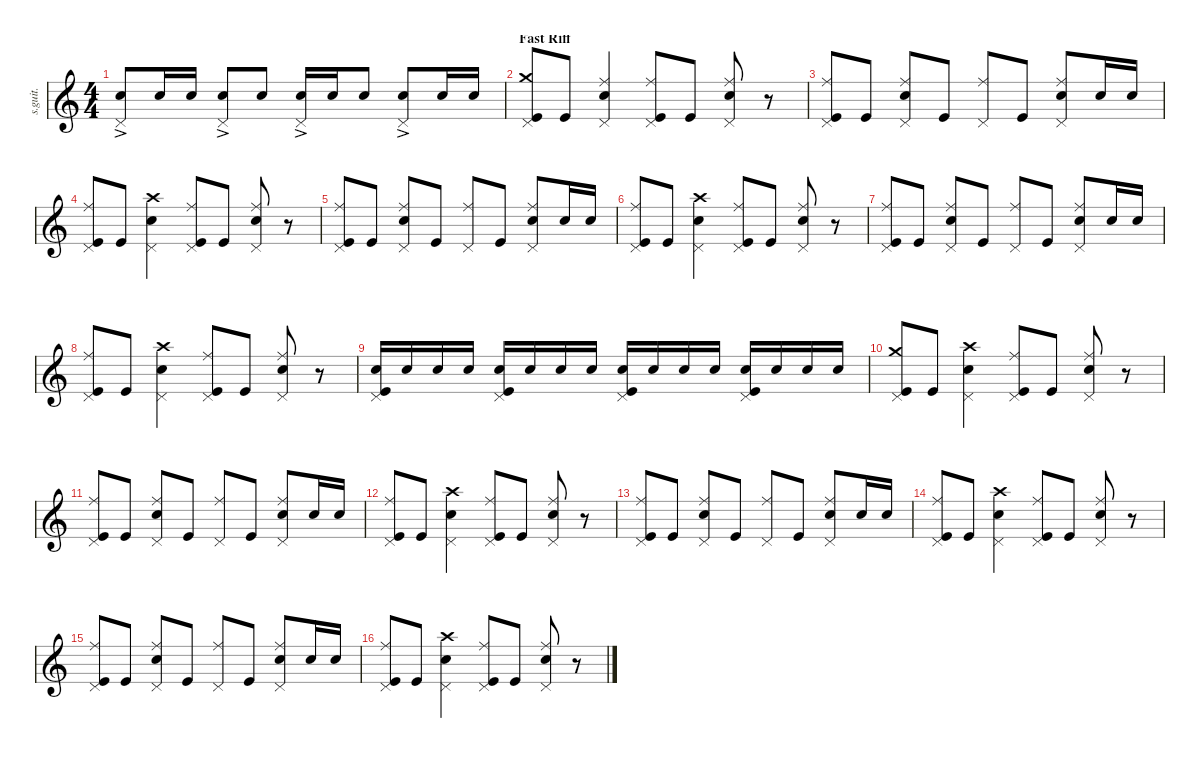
\defaultSystemsLayout 4
\hideDynamics
\bracketExtendMode nobrackets
\track ("Dave Grohl" "s.guit.") {instrument percussion}
\staff {score}
\articulation defaults
\ts (4 4)
\tempo (210 hide)
\clef g2
\ks c
("Pedal Hi-Hat (hit)"{ac} "Snare (hit) 2").8{lyrics (0 "") lyrics (1 "") lyrics (2 "") lyrics (3 "") lyrics (4 "") dy f} "Snare (hit) 2".16{lyrics (0 "") lyrics (1 "") lyrics (2 "") lyrics (3 "") lyrics (4 "")} "Snare (hit) 2".16{lyrics (0 "") lyrics (1 "") lyrics (2 "") lyrics (3 "") lyrics (4 "")} ("Pedal Hi-Hat (hit)"{ac} "Snare (hit) 2").8{lyrics (0 "") lyrics (1 "") lyrics (2 "") lyrics (3 "") lyrics (4 "")} "Snare (hit) 2".8{lyrics (0 "") lyrics (1 "") lyrics (2 "") lyrics (3 "") lyrics (4 "")} ("Pedal Hi-Hat (hit)"{ac} "Snare (hit) 2").16{lyrics (0 "") lyrics (1 "") lyrics (2 "") lyrics (3 "") lyrics (4 "")} "Snare (hit) 2".16{lyrics (0 "") lyrics (1 "") lyrics (2 "") lyrics (3 "") lyrics (4 "")} "Snare (hit) 2".8{lyrics (0 "") lyrics (1 "") lyrics (2 "") lyrics (3 "") lyrics (4 "")} ("Pedal Hi-Hat (hit)"{ac} "Snare (hit) 2").8{lyrics (0 "") lyrics (1 "") lyrics (2 "") lyrics (3 "") lyrics (4 "")} "Snare (hit) 2".16{lyrics (0 "") lyrics (1 "") lyrics (2 "") lyrics (3 "") lyrics (4 "")} "Snare (hit) 2".16{lyrics (0 "") lyrics (1 "") lyrics (2 "") lyrics (3 "") lyrics (4 "")} |
\section ("" "Fast Riff")
("Pedal Hi-Hat (hit)" "Crash medium (hit)" "Kick (hit)").8{lyrics (0 "") lyrics (1 "") lyrics (2 "") lyrics (3 "") lyrics (4 "")} "Kick (hit)".8{lyrics (0 "") lyrics (1 "") lyrics (2 "") lyrics (3 "") lyrics (4 "")} ("Pedal Hi-Hat (hit)" "Ride (middle)" "Snare (hit) 2").4{lyrics (0 "") lyrics (1 "") lyrics (2 "") lyrics (3 "") lyrics (4 "")} ("Pedal Hi-Hat (hit)" "Ride (middle)" "Kick (hit)").8{lyrics (0 "") lyrics (1 "") lyrics (2 "") lyrics (3 "") lyrics (4 "")} "Kick (hit)".8{lyrics (0 "") lyrics (1 "") lyrics (2 "") lyrics (3 "") lyrics (4 "")} ("Pedal Hi-Hat (hit)" "Ride (middle)" "Snare (hit) 2").8{lyrics (0 "") lyrics (1 "") lyrics (2 "") lyrics (3 "") lyrics (4 "")} r.8 |
("Pedal Hi-Hat (hit)" "Ride (middle)" "Kick (hit)").8{lyrics (0 "") lyrics (1 "") lyrics (2 "") lyrics (3 "") lyrics (4 "")} "Kick (hit)".8{lyrics (0 "") lyrics (1 "") lyrics (2 "") lyrics (3 "") lyrics (4 "")} ("Pedal Hi-Hat (hit)" "Ride (middle)" "Snare (hit) 2").8{lyrics (0 "") lyrics (1 "") lyrics (2 "") lyrics (3 "") lyrics (4 "")} "Kick (hit)".8{lyrics (0 "") lyrics (1 "") lyrics (2 "") lyrics (3 "") lyrics (4 "")} ("Pedal Hi-Hat (hit)" "Ride (middle)").8{lyrics (0 "") lyrics (1 "") lyrics (2 "") lyrics (3 "") lyrics (4 "")} "Kick (hit)".8{lyrics (0 "") lyrics (1 "") lyrics (2 "") lyrics (3 "") lyrics (4 "")} ("Pedal Hi-Hat (hit)" "Ride (middle)" "Snare (hit) 2").8{lyrics (0 "") lyrics (1 "") lyrics (2 "") lyrics (3 "") lyrics (4 "")} "Snare (hit) 2".16{lyrics (0 "") lyrics (1 "") lyrics (2 "") lyrics (3 "") lyrics (4 "") dy mf} "Snare (hit) 2".16{lyrics (0 "") lyrics (1 "") lyrics (2 "") lyrics (3 "") lyrics (4 "")} |
("Pedal Hi-Hat (hit)" "Ride (middle)" "Kick (hit)").8{lyrics (0 "") lyrics (1 "") lyrics (2 "") lyrics (3 "") lyrics (4 "") dy f} "Kick (hit)".8{lyrics (0 "") lyrics (1 "") lyrics (2 "") lyrics (3 "") lyrics (4 "")} ("Pedal Hi-Hat (hit)" "Crash high (hit)" "Snare (hit) 2").4{lyrics (0 "") lyrics (1 "") lyrics (2 "") lyrics (3 "") lyrics (4 "")} ("Pedal Hi-Hat (hit)" "Ride (middle)" "Kick (hit)").8{lyrics (0 "") lyrics (1 "") lyrics (2 "") lyrics (3 "") lyrics (4 "")} "Kick (hit)".8{lyrics (0 "") lyrics (1 "") lyrics (2 "") lyrics (3 "") lyrics (4 "")} ("Pedal Hi-Hat (hit)" "Ride (middle)" "Snare (hit) 2").8{lyrics (0 "") lyrics (1 "") lyrics (2 "") lyrics (3 "") lyrics (4 "")} r.8 |
("Pedal Hi-Hat (hit)" "Ride (middle)" "Kick (hit)").8{lyrics (0 "") lyrics (1 "") lyrics (2 "") lyrics (3 "") lyrics (4 "")} "Kick (hit)".8{lyrics (0 "") lyrics (1 "") lyrics (2 "") lyrics (3 "") lyrics (4 "")} ("Pedal Hi-Hat (hit)" "Ride (middle)" "Snare (hit) 2").8{lyrics (0 "") lyrics (1 "") lyrics (2 "") lyrics (3 "") lyrics (4 "")} "Kick (hit)".8{lyrics (0 "") lyrics (1 "") lyrics (2 "") lyrics (3 "") lyrics (4 "")} ("Pedal Hi-Hat (hit)" "Ride (middle)").8{lyrics (0 "") lyrics (1 "") lyrics (2 "") lyrics (3 "") lyrics (4 "")} "Kick (hit)".8{lyrics (0 "") lyrics (1 "") lyrics (2 "") lyrics (3 "") lyrics (4 "")} ("Pedal Hi-Hat (hit)" "Ride (middle)" "Snare (hit) 2").8{lyrics (0 "") lyrics (1 "") lyrics (2 "") lyrics (3 "") lyrics (4 "")} "Snare (hit) 2".16{lyrics (0 "") lyrics (1 "") lyrics (2 "") lyrics (3 "") lyrics (4 "") dy mf} "Snare (hit) 2".16{lyrics (0 "") lyrics (1 "") lyrics (2 "") lyrics (3 "") lyrics (4 "")} |
("Pedal Hi-Hat (hit)" "Ride (middle)" "Kick (hit)").8{lyrics (0 "") lyrics (1 "") lyrics (2 "") lyrics (3 "") lyrics (4 "") dy f} "Kick (hit)".8{lyrics (0 "") lyrics (1 "") lyrics (2 "") lyrics (3 "") lyrics (4 "")} ("Pedal Hi-Hat (hit)" "Crash high (hit)" "Snare (hit) 2").4{lyrics (0 "") lyrics (1 "") lyrics (2 "") lyrics (3 "") lyrics (4 "")} ("Pedal Hi-Hat (hit)" "Ride (middle)" "Kick (hit)").8{lyrics (0 "") lyrics (1 "") lyrics (2 "") lyrics (3 "") lyrics (4 "")} "Kick (hit)".8{lyrics (0 "") lyrics (1 "") lyrics (2 "") lyrics (3 "") lyrics (4 "")} ("Pedal Hi-Hat (hit)" "Ride (middle)" "Snare (hit) 2").8{lyrics (0 "") lyrics (1 "") lyrics (2 "") lyrics (3 "") lyrics (4 "")} r.8 |
("Pedal Hi-Hat (hit)" "Ride (middle)" "Kick (hit)").8{lyrics (0 "") lyrics (1 "") lyrics (2 "") lyrics (3 "") lyrics (4 "")} "Kick (hit)".8{lyrics (0 "") lyrics (1 "") lyrics (2 "") lyrics (3 "") lyrics (4 "")} ("Pedal Hi-Hat (hit)" "Ride (middle)" "Snare (hit) 2").8{lyrics (0 "") lyrics (1 "") lyrics (2 "") lyrics (3 "") lyrics (4 "")} "Kick (hit)".8{lyrics (0 "") lyrics (1 "") lyrics (2 "") lyrics (3 "") lyrics (4 "")} ("Pedal Hi-Hat (hit)" "Ride (middle)").8{lyrics (0 "") lyrics (1 "") lyrics (2 "") lyrics (3 "") lyrics (4 "")} "Kick (hit)".8{lyrics (0 "") lyrics (1 "") lyrics (2 "") lyrics (3 "") lyrics (4 "")} ("Pedal Hi-Hat (hit)" "Ride (middle)" "Snare (hit) 2").8{lyrics (0 "") lyrics (1 "") lyrics (2 "") lyrics (3 "") lyrics (4 "")} "Snare (hit) 2".16{lyrics (0 "") lyrics (1 "") lyrics (2 "") lyrics (3 "") lyrics (4 "") dy mf} "Snare (hit) 2".16{lyrics (0 "") lyrics (1 "") lyrics (2 "") lyrics (3 "") lyrics (4 "")} |
("Pedal Hi-Hat (hit)" "Ride (middle)" "Kick (hit)").8{lyrics (0 "") lyrics (1 "") lyrics (2 "") lyrics (3 "") lyrics (4 "") dy f} "Kick (hit)".8{lyrics (0 "") lyrics (1 "") lyrics (2 "") lyrics (3 "") lyrics (4 "")} ("Pedal Hi-Hat (hit)" "Crash high (hit)" "Snare (hit) 2").4{lyrics (0 "") lyrics (1 "") lyrics (2 "") lyrics (3 "") lyrics (4 "")} ("Pedal Hi-Hat (hit)" "Ride (middle)" "Kick (hit)").8{lyrics (0 "") lyrics (1 "") lyrics (2 "") lyrics (3 "") lyrics (4 "")} "Kick (hit)".8{lyrics (0 "") lyrics (1 "") lyrics (2 "") lyrics (3 "") lyrics (4 "")} ("Pedal Hi-Hat (hit)" "Ride (middle)" "Snare (hit) 2").8{lyrics (0 "") lyrics (1 "") lyrics (2 "") lyrics (3 "") lyrics (4 "")} r.8 |
("Pedal Hi-Hat (hit)" "Snare (hit) 2" "Kick (hit)").16{lyrics (0 "") lyrics (1 "") lyrics (2 "") lyrics (3 "") lyrics (4 "") dy mf} "Snare (hit) 2".16{lyrics (0 "") lyrics (1 "") lyrics (2 "") lyrics (3 "") lyrics (4 "") dy mp} "Snare (hit) 2".16{lyrics (0 "") lyrics (1 "") lyrics (2 "") lyrics (3 "") lyrics (4 "")} "Snare (hit) 2".16{lyrics (0 "") lyrics (1 "") lyrics (2 "") lyrics (3 "") lyrics (4 "") dy mf} ("Pedal Hi-Hat (hit)" "Snare (hit) 2" "Kick (hit)").16{lyrics (0 "") lyrics (1 "") lyrics (2 "") lyrics (3 "") lyrics (4 "")} "Snare (hit) 2".16{lyrics (0 "") lyrics (1 "") lyrics (2 "") lyrics (3 "") lyrics (4 "") dy mp} "Snare (hit) 2".16{lyrics (0 "") lyrics (1 "") lyrics (2 "") lyrics (3 "") lyrics (4 "")} "Snare (hit) 2".16{lyrics (0 "") lyrics (1 "") lyrics (2 "") lyrics (3 "") lyrics (4 "") dy mf} ("Pedal Hi-Hat (hit)" "Snare (hit) 2" "Kick (hit)").16{lyrics (0 "") lyrics (1 "") lyrics (2 "") lyrics (3 "") lyrics (4 "")} "Snare (hit) 2".16{lyrics (0 "") lyrics (1 "") lyrics (2 "") lyrics (3 "") lyrics (4 "") dy mp} "Snare (hit) 2".16{lyrics (0 "") lyrics (1 "") lyrics (2 "") lyrics (3 "") lyrics (4 "")} "Snare (hit) 2".16{lyrics (0 "") lyrics (1 "") lyrics (2 "") lyrics (3 "") lyrics (4 "") dy mf} ("Pedal Hi-Hat (hit)" "Snare (hit) 2" "Kick (hit)").16{lyrics (0 "") lyrics (1 "") lyrics (2 "") lyrics (3 "") lyrics (4 "")} "Snare (hit) 2".16{lyrics (0 "") lyrics (1 "") lyrics (2 "") lyrics (3 "") lyrics (4 "")} "Snare (hit) 2".16{lyrics (0 "") lyrics (1 "") lyrics (2 "") lyrics (3 "") lyrics (4 "")} "Snare (hit) 2".16{lyrics (0 "") lyrics (1 "") lyrics (2 "") lyrics (3 "") lyrics (4 "") dy f} |
("Pedal Hi-Hat (hit)" "Crash medium (hit)" "Kick (hit)").8{lyrics (0 "") lyrics (1 "") lyrics (2 "") lyrics (3 "") lyrics (4 "")} "Kick (hit)".8{lyrics (0 "") lyrics (1 "") lyrics (2 "") lyrics (3 "") lyrics (4 "")} ("Pedal Hi-Hat (hit)" "Crash high (hit)" "Snare (hit) 2").4{lyrics (0 "") lyrics (1 "") lyrics (2 "") lyrics (3 "") lyrics (4 "")} ("Pedal Hi-Hat (hit)" "Ride (middle)" "Kick (hit)").8{lyrics (0 "") lyrics (1 "") lyrics (2 "") lyrics (3 "") lyrics (4 "")} "Kick (hit)".8{lyrics (0 "") lyrics (1 "") lyrics (2 "") lyrics (3 "") lyrics (4 "")} ("Pedal Hi-Hat (hit)" "Ride (middle)" "Snare (hit) 2").8{lyrics (0 "") lyrics (1 "") lyrics (2 "") lyrics (3 "") lyrics (4 "")} r.8 |
("Pedal Hi-Hat (hit)" "Ride (middle)" "Kick (hit)").8{lyrics (0 "") lyrics (1 "") lyrics (2 "") lyrics (3 "") lyrics (4 "")} "Kick (hit)".8{lyrics (0 "") lyrics (1 "") lyrics (2 "") lyrics (3 "") lyrics (4 "")} ("Pedal Hi-Hat (hit)" "Ride (middle)" "Snare (hit) 2").8{lyrics (0 "") lyrics (1 "") lyrics (2 "") lyrics (3 "") lyrics (4 "")} "Kick (hit)".8{lyrics (0 "") lyrics (1 "") lyrics (2 "") lyrics (3 "") lyrics (4 "")} ("Pedal Hi-Hat (hit)" "Ride (middle)").8{lyrics (0 "") lyrics (1 "") lyrics (2 "") lyrics (3 "") lyrics (4 "")} "Kick (hit)".8{lyrics (0 "") lyrics (1 "") lyrics (2 "") lyrics (3 "") lyrics (4 "")} ("Pedal Hi-Hat (hit)" "Ride (middle)" "Snare (hit) 2").8{lyrics (0 "") lyrics (1 "") lyrics (2 "") lyrics (3 "") lyrics (4 "")} "Snare (hit) 2".16{lyrics (0 "") lyrics (1 "") lyrics (2 "") lyrics (3 "") lyrics (4 "") dy mf} "Snare (hit) 2".16{lyrics (0 "") lyrics (1 "") lyrics (2 "") lyrics (3 "") lyrics (4 "")} |
("Pedal Hi-Hat (hit)" "Ride (middle)" "Kick (hit)").8{lyrics (0 "") lyrics (1 "") lyrics (2 "") lyrics (3 "") lyrics (4 "") dy f} "Kick (hit)".8{lyrics (0 "") lyrics (1 "") lyrics (2 "") lyrics (3 "") lyrics (4 "")} ("Pedal Hi-Hat (hit)" "Crash high (hit)" "Snare (hit) 2").4{lyrics (0 "") lyrics (1 "") lyrics (2 "") lyrics (3 "") lyrics (4 "")} ("Pedal Hi-Hat (hit)" "Ride (middle)" "Kick (hit)").8{lyrics (0 "") lyrics (1 "") lyrics (2 "") lyrics (3 "") lyrics (4 "")} "Kick (hit)".8{lyrics (0 "") lyrics (1 "") lyrics (2 "") lyrics (3 "") lyrics (4 "")} ("Pedal Hi-Hat (hit)" "Ride (middle)" "Snare (hit) 2").8{lyrics (0 "") lyrics (1 "") lyrics (2 "") lyrics (3 "") lyrics (4 "")} r.8 |
("Pedal Hi-Hat (hit)" "Ride (middle)" "Kick (hit)").8{lyrics (0 "") lyrics (1 "") lyrics (2 "") lyrics (3 "") lyrics (4 "")} "Kick (hit)".8{lyrics (0 "") lyrics (1 "") lyrics (2 "") lyrics (3 "") lyrics (4 "")} ("Pedal Hi-Hat (hit)" "Ride (middle)" "Snare (hit) 2").8{lyrics (0 "") lyrics (1 "") lyrics (2 "") lyrics (3 "") lyrics (4 "")} "Kick (hit)".8{lyrics (0 "") lyrics (1 "") lyrics (2 "") lyrics (3 "") lyrics (4 "")} ("Pedal Hi-Hat (hit)" "Ride (middle)").8{lyrics (0 "") lyrics (1 "") lyrics (2 "") lyrics (3 "") lyrics (4 "")} "Kick (hit)".8{lyrics (0 "") lyrics (1 "") lyrics (2 "") lyrics (3 "") lyrics (4 "")} ("Pedal Hi-Hat (hit)" "Ride (middle)" "Snare (hit) 2").8{lyrics (0 "") lyrics (1 "") lyrics (2 "") lyrics (3 "") lyrics (4 "")} "Snare (hit) 2".16{lyrics (0 "") lyrics (1 "") lyrics (2 "") lyrics (3 "") lyrics (4 "") dy mf} "Snare (hit) 2".16{lyrics (0 "") lyrics (1 "") lyrics (2 "") lyrics (3 "") lyrics (4 "")} |
("Pedal Hi-Hat (hit)" "Ride (middle)" "Kick (hit)").8{lyrics (0 "") lyrics (1 "") lyrics (2 "") lyrics (3 "") lyrics (4 "") dy f} "Kick (hit)".8{lyrics (0 "") lyrics (1 "") lyrics (2 "") lyrics (3 "") lyrics (4 "")} ("Pedal Hi-Hat (hit)" "Crash high (hit)" "Snare (hit) 2").4{lyrics (0 "") lyrics (1 "") lyrics (2 "") lyrics (3 "") lyrics (4 "")} ("Pedal Hi-Hat (hit)" "Ride (middle)" "Kick (hit)").8{lyrics (0 "") lyrics (1 "") lyrics (2 "") lyrics (3 "") lyrics (4 "")} "Kick (hit)".8{lyrics (0 "") lyrics (1 "") lyrics (2 "") lyrics (3 "") lyrics (4 "")} ("Pedal Hi-Hat (hit)" "Ride (middle)" "Snare (hit) 2").8{lyrics (0 "") lyrics (1 "") lyrics (2 "") lyrics (3 "") lyrics (4 "")} r.8 |
("Pedal Hi-Hat (hit)" "Ride (middle)" "Kick (hit)").8{lyrics (0 "") lyrics (1 "") lyrics (2 "") lyrics (3 "") lyrics (4 "")} "Kick (hit)".8{lyrics (0 "") lyrics (1 "") lyrics (2 "") lyrics (3 "") lyrics (4 "")} ("Pedal Hi-Hat (hit)" "Ride (middle)" "Snare (hit) 2").8{lyrics (0 "") lyrics (1 "") lyrics (2 "") lyrics (3 "") lyrics (4 "")} "Kick (hit)".8{lyrics (0 "") lyrics (1 "") lyrics (2 "") lyrics (3 "") lyrics (4 "")} ("Pedal Hi-Hat (hit)" "Ride (middle)").8{lyrics (0 "") lyrics (1 "") lyrics (2 "") lyrics (3 "") lyrics (4 "")} "Kick (hit)".8{lyrics (0 "") lyrics (1 "") lyrics (2 "") lyrics (3 "") lyrics (4 "")} ("Pedal Hi-Hat (hit)" "Ride (middle)" "Snare (hit) 2").8{lyrics (0 "") lyrics (1 "") lyrics (2 "") lyrics (3 "") lyrics (4 "")} "Snare (hit) 2".16{lyrics (0 "") lyrics (1 "") lyrics (2 "") lyrics (3 "") lyrics (4 "") dy mf} "Snare (hit) 2".16{lyrics (0 "") lyrics (1 "") lyrics (2 "") lyrics (3 "") lyrics (4 "")} |
("Pedal Hi-Hat (hit)" "Ride (middle)" "Kick (hit)").8{lyrics (0 "") lyrics (1 "") lyrics (2 "") lyrics (3 "") lyrics (4 "") dy f} "Kick (hit)".8{lyrics (0 "") lyrics (1 "") lyrics (2 "") lyrics (3 "") lyrics (4 "")} ("Pedal Hi-Hat (hit)" "Crash high (hit)" "Snare (hit) 2").4{lyrics (0 "") lyrics (1 "") lyrics (2 "") lyrics (3 "") lyrics (4 "")} ("Pedal Hi-Hat (hit)" "Ride (middle)" "Kick (hit)").8{lyrics (0 "") lyrics (1 "") lyrics (2 "") lyrics (3 "") lyrics (4 "")} "Kick (hit)".8{lyrics (0 "") lyrics (1 "") lyrics (2 "") lyrics (3 "") lyrics (4 "")} ("Pedal Hi-Hat (hit)" "Ride (middle)" "Snare (hit) 2").8{lyrics (0 "") lyrics (1 "") lyrics (2 "") lyrics (3 "") lyrics (4 "")} r.8
